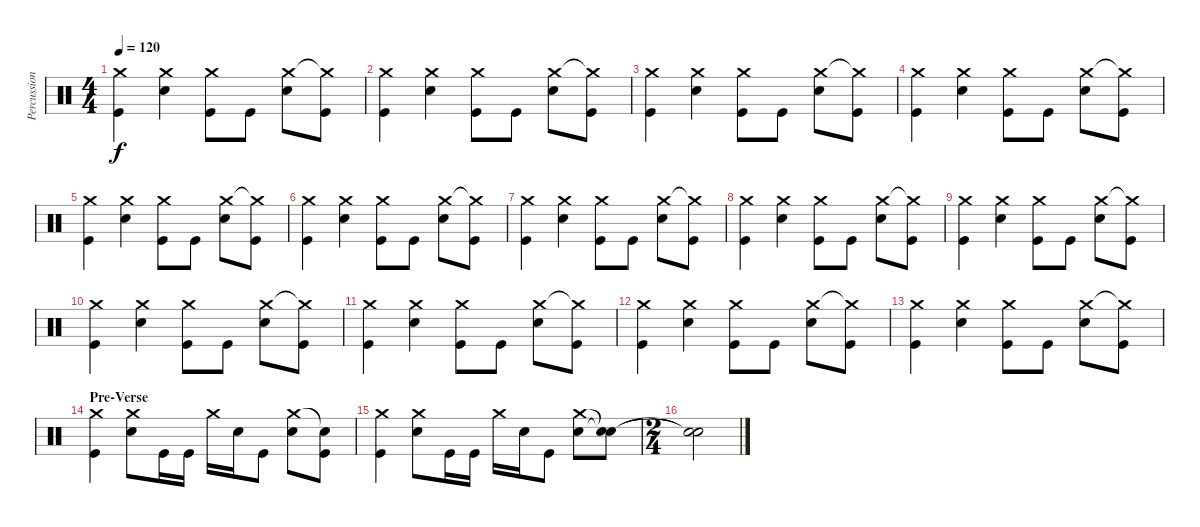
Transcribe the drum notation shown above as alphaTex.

\track ("Percussion" "Percussion") {instrument percussion}
\staff {score}
\articulation defaults
\ts (4 4)
\tempo 120
\clef neutral
\ks c
("Crash medium (hit)" "Kick (hit)").4{dy f} ("Snare (hit) 2" "Crash medium (hit)").4 ("Crash medium (hit)" "Kick (hit)").8 "Kick (hit)".8 ("Crash medium (hit)" "Snare (hit) 2").8 ("Crash medium (hit)"{t} "Kick (hit)").8 |
("Crash medium (hit)" "Kick (hit)").4 ("Snare (hit) 2" "Crash medium (hit)").4 ("Crash medium (hit)" "Kick (hit)").8 "Kick (hit)".8 ("Crash medium (hit)" "Snare (hit) 2").8 ("Crash medium (hit)"{t} "Kick (hit)").8 |
("Crash medium (hit)" "Kick (hit)").4 ("Snare (hit) 2" "Crash medium (hit)").4 ("Crash medium (hit)" "Kick (hit)").8 "Kick (hit)".8 ("Crash medium (hit)" "Snare (hit) 2").8 ("Crash medium (hit)"{t} "Kick (hit)").8 |
("Crash medium (hit)" "Kick (hit)").4 ("Snare (hit) 2" "Crash medium (hit)").4 ("Crash medium (hit)" "Kick (hit)").8 "Kick (hit)".8 ("Crash medium (hit)" "Snare (hit) 2").8 ("Crash medium (hit)"{t} "Kick (hit)").8 |
("Crash medium (hit)" "Kick (hit)").4 ("Snare (hit) 2" "Crash medium (hit)").4 ("Crash medium (hit)" "Kick (hit)").8 "Kick (hit)".8 ("Crash medium (hit)" "Snare (hit) 2").8 ("Crash medium (hit)"{t} "Kick (hit)").8 |
("Crash medium (hit)" "Kick (hit)").4 ("Snare (hit) 2" "Crash medium (hit)").4 ("Crash medium (hit)" "Kick (hit)").8 "Kick (hit)".8 ("Crash medium (hit)" "Snare (hit) 2").8 ("Crash medium (hit)"{t} "Kick (hit)").8 |
("Crash medium (hit)" "Kick (hit)").4 ("Snare (hit) 2" "Crash medium (hit)").4 ("Crash medium (hit)" "Kick (hit)").8 "Kick (hit)".8 ("Crash medium (hit)" "Snare (hit) 2").8 ("Crash medium (hit)"{t} "Kick (hit)").8 |
("Crash medium (hit)" "Kick (hit)").4 ("Snare (hit) 2" "Crash medium (hit)").4 ("Crash medium (hit)" "Kick (hit)").8 "Kick (hit)".8 ("Crash medium (hit)" "Snare (hit) 2").8 ("Crash medium (hit)"{t} "Kick (hit)").8 |
("Crash medium (hit)" "Kick (hit)").4 ("Snare (hit) 2" "Crash medium (hit)").4 ("Crash medium (hit)" "Kick (hit)").8 "Kick (hit)".8 ("Crash medium (hit)" "Snare (hit) 2").8 ("Crash medium (hit)"{t} "Kick (hit)").8 |
("Crash medium (hit)" "Kick (hit)").4 ("Snare (hit) 2" "Crash medium (hit)").4 ("Crash medium (hit)" "Kick (hit)").8 "Kick (hit)".8 ("Crash medium (hit)" "Snare (hit) 2").8 ("Crash medium (hit)"{t} "Kick (hit)").8 |
("Crash medium (hit)" "Kick (hit)").4 ("Snare (hit) 2" "Crash medium (hit)").4 ("Crash medium (hit)" "Kick (hit)").8 "Kick (hit)".8 ("Crash medium (hit)" "Snare (hit) 2").8 ("Crash medium (hit)"{t} "Kick (hit)").8 |
("Crash medium (hit)" "Kick (hit)").4 ("Snare (hit) 2" "Crash medium (hit)").4 ("Crash medium (hit)" "Kick (hit)").8 "Kick (hit)".8 ("Crash medium (hit)" "Snare (hit) 2").8 ("Crash medium (hit)"{t} "Kick (hit)").8 |
("Crash medium (hit)" "Kick (hit)").4 ("Snare (hit) 2" "Crash medium (hit)").4 ("Crash medium (hit)" "Kick (hit)").8 "Kick (hit)".8 ("Crash medium (hit)" "Snare (hit) 2").8 ("Crash medium (hit)"{t} "Kick (hit)").8 |
\section ("" "Pre-Verse")
("Crash medium (hit)" "Kick (hit)").4 ("Crash medium (hit)" "Snare (hit) 2").8 "Kick (hit)".16 "Kick (hit)".16 "Crash medium (hit)".16 "Snare (hit) 2".16 "Kick (hit)".8 ("Crash medium (hit)" "Snare (hit) 2").8 ("Snare (hit)"{t} "Kick (hit)").8 |
("Crash medium (hit)" "Kick (hit)").4 ("Crash medium (hit)" "Snare (hit) 2").8 "Kick (hit)".16 "Kick (hit)".16 "Crash medium (hit)".16 "Snare (hit) 2".16 "Kick (hit)".8 ("Crash medium (hit)" "Snare (hit) 2").8 ("Snare (hit)"{t} "Snare (hit)"{t}).8 |
\ts (2 4)
("Snare (hit)"{t} "Snare (hit)"{t}).2
